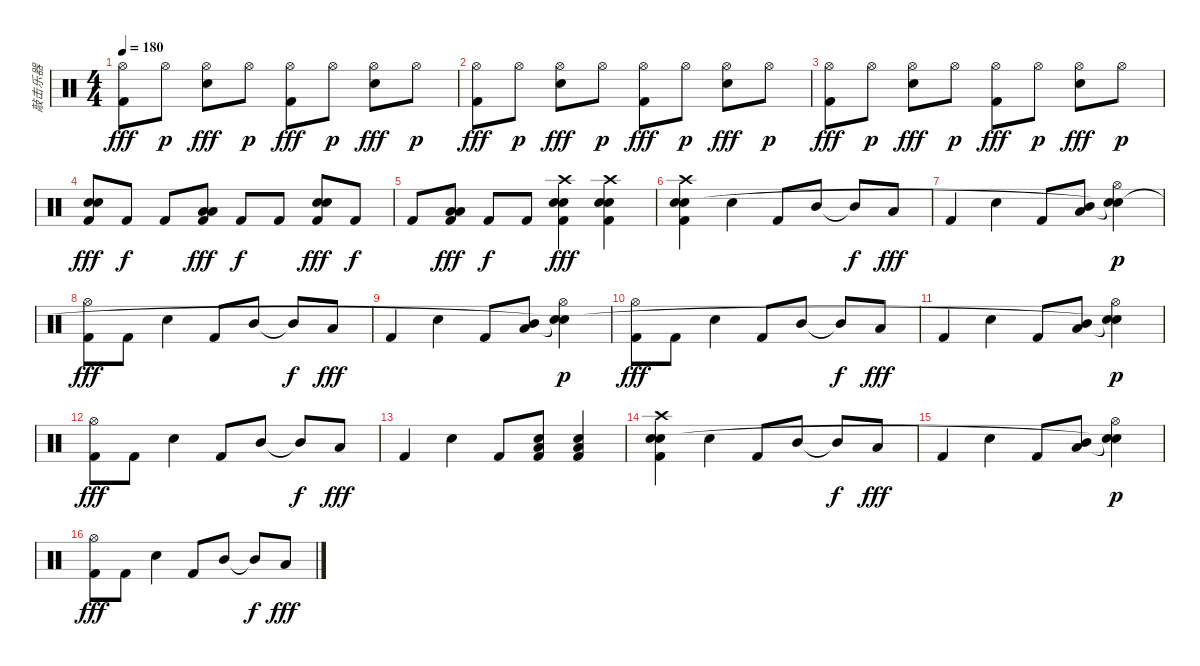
\track ("敲击乐器" "敲击乐器") {instrument percussion}
\staff {score}
\articulation defaults
\ts (4 4)
\tempo 180
\clef neutral
\ks c
("Hi-Hat (open)" "Kick (hit) 2").8{dy fff} "Hi-Hat (open)".8{dy p} ("Hi-Hat (open)" "Electric Snare (hit)").8{dy fff} "Hi-Hat (open)".8{dy p} ("Hi-Hat (open)" "Kick (hit) 2").8{dy fff} "Hi-Hat (open)".8{dy p} ("Hi-Hat (open)" "Electric Snare (hit)").8{dy fff} "Hi-Hat (open)".8{dy p} |
("Hi-Hat (open)" "Kick (hit) 2").8{dy fff} "Hi-Hat (open)".8{dy p} ("Hi-Hat (open)" "Electric Snare (hit)").8{dy fff} "Hi-Hat (open)".8{dy p} ("Hi-Hat (open)" "Kick (hit) 2").8{dy fff} "Hi-Hat (open)".8{dy p} ("Hi-Hat (open)" "Electric Snare (hit)").8{dy fff} "Hi-Hat (open)".8{dy p} |
("Hi-Hat (open)" "Kick (hit) 2").8{dy fff} "Hi-Hat (open)".8{dy p} ("Hi-Hat (open)" "Electric Snare (hit)").8{dy fff} "Hi-Hat (open)".8{dy p} ("Hi-Hat (open)" "Kick (hit) 2").8{dy fff} "Hi-Hat (open)".8{dy p} ("Hi-Hat (open)" "Electric Snare (hit)").8{dy fff} "Hi-Hat (open)".8{dy p} |
("Electric Snare (hit)" "Electric Snare (hit)" "Kick (hit) 2").8{dy fff} "Kick (hit) 2".8{dy f} "Kick (hit) 2".8 ("Low Tom (hit)" "Low Tom (hit)" "Kick (hit) 2").8{dy fff} "Kick (hit) 2".8{dy f} "Kick (hit) 2".8 ("Electric Snare (hit)" "Electric Snare (hit)" "Kick (hit) 2").8{dy fff} "Kick (hit) 2".8{dy f} |
"Kick (hit) 2".8 ("Low Tom (hit)" "Low Tom (hit)" "Kick (hit) 2").8{dy fff} "Kick (hit) 2".8{dy f} "Kick (hit) 2".8 ("Crash high (hit)" "Electric Snare (hit)" "Electric Snare (hit)" "Kick (hit) 2").4{dy fff} ("Crash high (hit)" "Electric Snare (hit)" "Electric Snare (hit)" "Kick (hit) 2").4 |
("Crash high (hit)" "Electric Snare (hit)" "Electric Snare (hit)" "Kick (hit) 2").4 "Electric Snare (hit)".4 "Kick (hit) 2".8 "Mid Tom (hit)".8 "Mid Tom (hit)"{t}.8{dy f} "Low Tom (hit)".8{dy fff} |
"Kick (hit) 2".4 "Electric Snare (hit)".4 "Kick (hit) 2".8 ("Mid Tom (hit)" "Low Tom (hit)").8 ("Hi-Hat (open)" "Snare (hit)"{t} "Snare (hit)"{t}).4{dy p} |
("Hi-Hat (open)" "Kick (hit) 2").8{dy fff} "Kick (hit) 2".8 "Electric Snare (hit)".4 "Kick (hit) 2".8 "Mid Tom (hit)".8 "Mid Tom (hit)"{t}.8{dy f} "Low Tom (hit)".8{dy fff} |
"Kick (hit) 2".4 "Electric Snare (hit)".4 "Kick (hit) 2".8 ("Mid Tom (hit)" "Low Tom (hit)").8 ("Hi-Hat (open)" "Snare (hit)"{t} "Snare (hit)"{t}).4{dy p} |
("Hi-Hat (open)" "Kick (hit) 2").8{dy fff} "Kick (hit) 2".8 "Electric Snare (hit)".4 "Kick (hit) 2".8 "Mid Tom (hit)".8 "Mid Tom (hit)"{t}.8{dy f} "Low Tom (hit)".8{dy fff} |
"Kick (hit) 2".4 "Electric Snare (hit)".4 "Kick (hit) 2".8 ("Mid Tom (hit)" "Low Tom (hit)").8 ("Hi-Hat (open)" "Snare (hit)"{t} "Snare (hit)"{t}).4{dy p} |
("Hi-Hat (open)" "Kick (hit) 2").8{dy fff} "Kick (hit) 2".8 "Electric Snare (hit)".4 "Kick (hit) 2".8 "Mid Tom (hit)".8 "Mid Tom (hit)"{t}.8{dy f} "Low Tom (hit)".8{dy fff} |
"Kick (hit) 2".4 "Electric Snare (hit)".4 "Kick (hit) 2".8 ("Low Tom (hit)" "Electric Snare (hit)" "Kick (hit) 2").8 ("Low Tom (hit)" "Electric Snare (hit)" "Kick (hit) 2").4 |
("Crash high (hit)" "Electric Snare (hit)" "Electric Snare (hit)" "Kick (hit) 2").4 "Electric Snare (hit)".4 "Kick (hit) 2".8 "Mid Tom (hit)".8 "Mid Tom (hit)"{t}.8{dy f} "Low Tom (hit)".8{dy fff} |
"Kick (hit) 2".4 "Electric Snare (hit)".4 "Kick (hit) 2".8 ("Mid Tom (hit)" "Low Tom (hit)").8 ("Hi-Hat (open)" "Snare (hit)"{t} "Snare (hit)"{t}).4{dy p} |
("Hi-Hat (open)" "Kick (hit) 2").8{dy fff} "Kick (hit) 2".8 "Electric Snare (hit)".4 "Kick (hit) 2".8 "Mid Tom (hit)".8 "Mid Tom (hit)"{t}.8{dy f} "Low Tom (hit)".8{dy fff}
